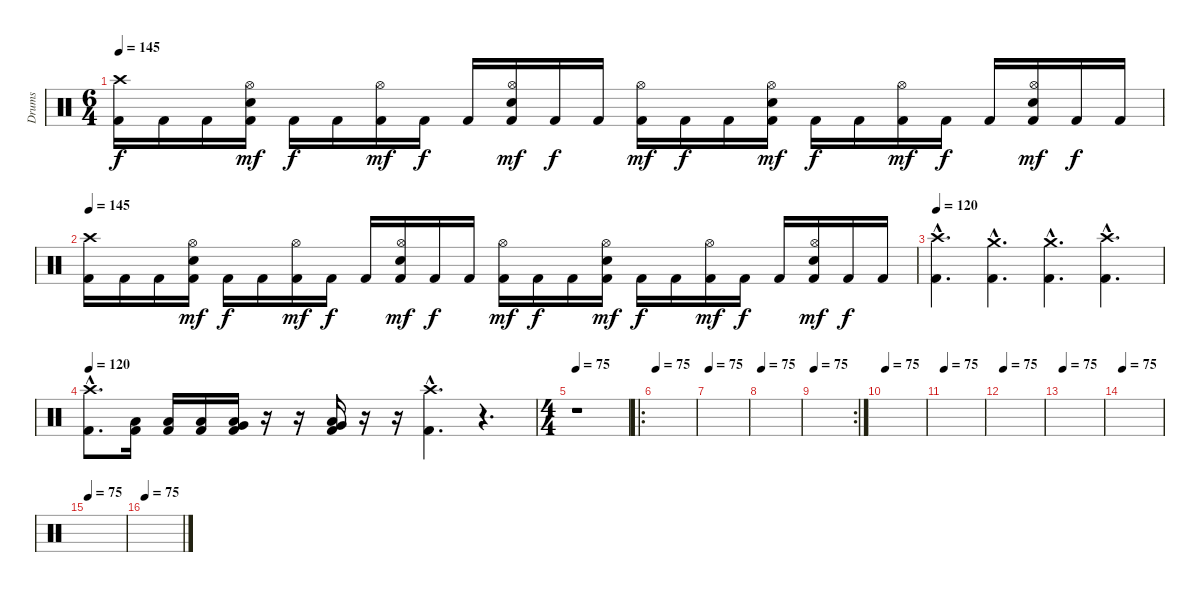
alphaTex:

\track ("Drums" "Drums") {instrument percussion}
\staff {score}
\articulation defaults
\ts (6 4)
\tempo 145
\clef neutral
\ks c
("Crash high (hit)" "Kick (hit) 2").16{dy f} "Kick (hit) 2".16 "Kick (hit) 2".16 ("Hi-Hat (open)" "Electric Snare (hit)" "Kick (hit) 2").16{dy mf} "Kick (hit) 2".16{dy f} "Kick (hit) 2".16 ("Hi-Hat (open)" "Kick (hit) 2").16{dy mf} "Kick (hit) 2".16{dy f} "Kick (hit) 2".16 ("Hi-Hat (open)" "Electric Snare (hit)" "Kick (hit) 2").16{dy mf} "Kick (hit) 2".16{dy f} "Kick (hit) 2".16 ("Hi-Hat (open)" "Kick (hit) 2").16{dy mf} "Kick (hit) 2".16{dy f} "Kick (hit) 2".16 ("Hi-Hat (open)" "Electric Snare (hit)" "Kick (hit) 2").16{dy mf} "Kick (hit) 2".16{dy f} "Kick (hit) 2".16 ("Hi-Hat (open)" "Kick (hit) 2").16{dy mf} "Kick (hit) 2".16{dy f} "Kick (hit) 2".16 ("Hi-Hat (open)" "Electric Snare (hit)" "Kick (hit) 2").16{dy mf} "Kick (hit) 2".16{dy f} "Kick (hit) 2".16 |
\tempo 145
("Crash high (hit)" "Kick (hit) 2").16 "Kick (hit) 2".16 "Kick (hit) 2".16 ("Hi-Hat (open)" "Electric Snare (hit)" "Kick (hit) 2").16{dy mf} "Kick (hit) 2".16{dy f} "Kick (hit) 2".16 ("Hi-Hat (open)" "Kick (hit) 2").16{dy mf} "Kick (hit) 2".16{dy f} "Kick (hit) 2".16 ("Hi-Hat (open)" "Electric Snare (hit)" "Kick (hit) 2").16{dy mf} "Kick (hit) 2".16{dy f} "Kick (hit) 2".16 ("Hi-Hat (open)" "Kick (hit) 2").16{dy mf} "Kick (hit) 2".16{dy f} "Kick (hit) 2".16 ("Hi-Hat (open)" "Electric Snare (hit)" "Kick (hit) 2").16{dy mf} "Kick (hit) 2".16{dy f} "Kick (hit) 2".16 ("Hi-Hat (open)" "Kick (hit) 2").16{dy mf} "Kick (hit) 2".16{dy f} "Kick (hit) 2".16 ("Hi-Hat (open)" "Electric Snare (hit)" "Kick (hit) 2").16{dy mf} "Kick (hit) 2".16{dy f} "Kick (hit) 2".16 |
\tempo 120
("Crash high (hit)"{hac} "Kick (hit) 2"{hac}).4{d} ("Crash medium (hit)"{hac} "Kick (hit) 2"{hac}).4{d} ("Crash medium (hit)"{hac} "Kick (hit) 2"{hac}).4{d} ("Crash high (hit)"{hac} "Kick (hit) 2"{hac}).4{d} |
\tempo 120
("Crash high (hit)"{hac} "Kick (hit) 2"{hac}).8{d} ("Low Tom (hit)" "Kick (hit) 2").16 ("Low Tom (hit)" "Kick (hit) 2").16 ("Low Tom (hit)" "Kick (hit) 2").16 ("Low Tom (hit)" "Very Low Tom (hit)" "Kick (hit) 2").16 r.16 r.16 ("Low Tom (hit)" "Very Low Tom (hit)" "Kick (hit) 2").16 r.16 r.16 ("Crash high (hit)"{hac} "Kick (hit) 2"{hac}).4{d} r.4{d} |
\ts (4 4)
\tempo 75
r.1 |
\ro
\tempo 75
|
\tempo 75
|
\tempo 75
|
\rc 2
\tempo 75
|
\tempo 75
|
\tempo 75
|
\tempo 75
|
\tempo 75
|
\tempo 75
|
\tempo 75
|
\tempo 75
